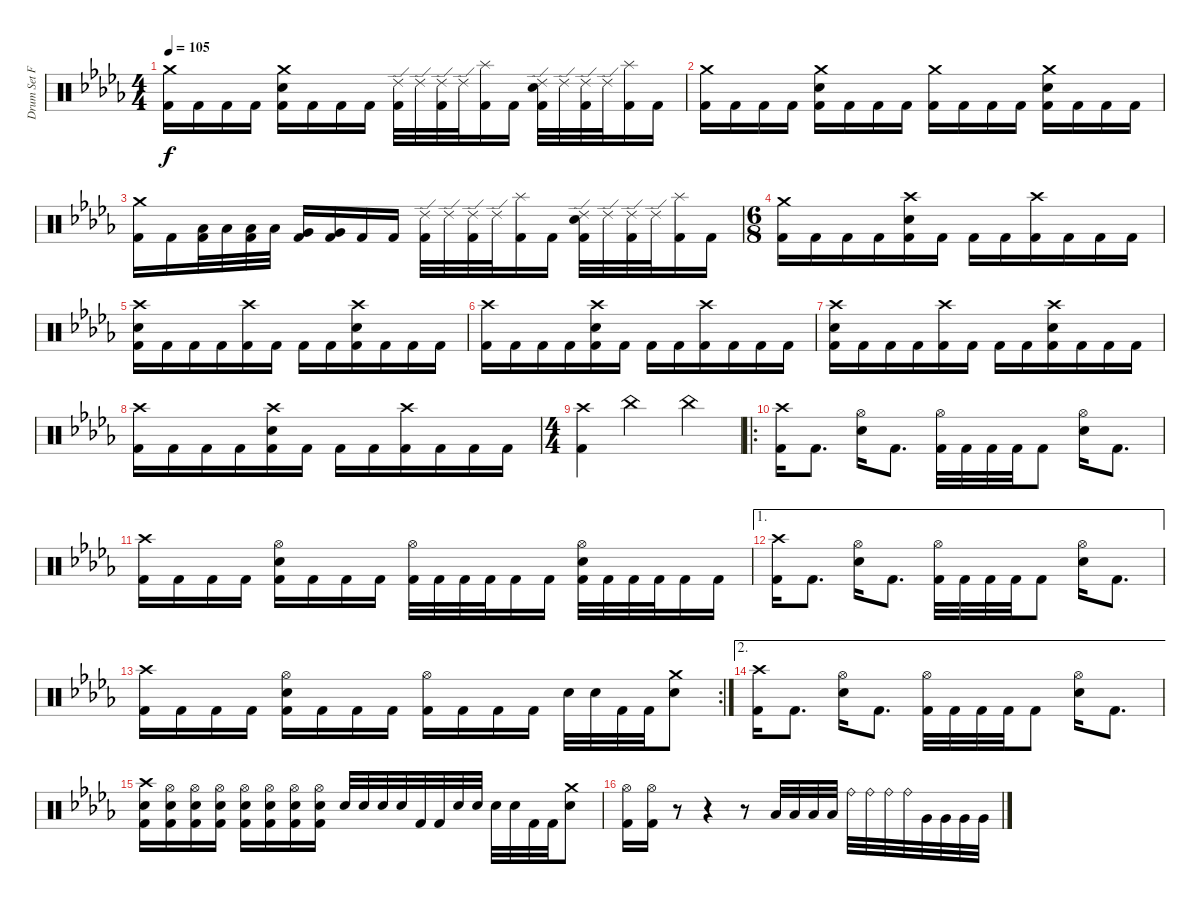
\track ("Drum Set Franz Brachmann" "Drum Set F") {instrument percussion}
\staff {score}
\articulation defaults
\ts (4 4)
\tempo 105
\clef neutral
\ks bbminor
("Crash medium (hit)" "Kick (hit) 2").16{dy f} "Kick (hit) 2".16 "Kick (hit) 2".16 "Kick (hit) 2".16 ("Crash medium (hit)" "Electric Snare (hit)" "Kick (hit) 2").16 "Kick (hit) 2".16 "Kick (hit) 2".16 "Kick (hit) 2".16 ("Ride (edge) 2" "Kick (hit) 2").32 "Ride (edge) 2".32 ("Ride (edge) 2" "Kick (hit) 2").32 "Ride (edge) 2".32 ("Splash (hit)" "Kick (hit) 2").16 "Kick (hit) 2".16 ("Ride (edge) 2" "Electric Snare (hit)" "Kick (hit) 2").32 "Ride (edge) 2".32 ("Ride (edge) 2" "Kick (hit) 2").32 "Ride (edge) 2".32 ("Splash (hit)" "Kick (hit) 2").16 "Kick (hit) 2".16 |
("Crash medium (hit)" "Kick (hit) 2").16 "Kick (hit) 2".16 "Kick (hit) 2".16 "Kick (hit) 2".16 ("Crash medium (hit)" "Electric Snare (hit)" "Kick (hit) 2").16 "Kick (hit) 2".16 "Kick (hit) 2".16 "Kick (hit) 2".16 ("Crash medium (hit)" "Kick (hit) 2").16 "Kick (hit) 2".16 "Kick (hit) 2".16 "Kick (hit) 2".16 ("Crash medium (hit)" "Electric Snare (hit)" "Kick (hit) 2").16 "Kick (hit) 2".16 "Kick (hit) 2".16 "Kick (hit) 2".16 |
("Crash medium (hit)" "Kick (hit) 2").16 "Kick (hit) 2".16 ("Low Tom (hit)" "Kick (hit) 2").32 "Low Tom (hit)".32 ("Low Tom (hit)" "Kick (hit) 2").32 "Low Tom (hit)".32 ("Very Low Tom (hit)" "Kick (hit) 2").16 ("Very Low Tom (hit)" "Kick (hit) 2").16 "Kick (hit) 2".16 "Kick (hit) 2".16 ("Ride (edge) 2" "Kick (hit) 2").32 "Ride (edge) 2".32 ("Ride (edge) 2" "Kick (hit) 2").32 "Ride (edge) 2".32 ("Splash (hit)" "Kick (hit) 2").16 "Kick (hit) 2".16 ("Ride (edge) 2" "Electric Snare (hit)" "Kick (hit) 2").32 "Ride (edge) 2".32 ("Ride (edge) 2" "Kick (hit) 2").32 "Ride (edge) 2".32 ("Splash (hit)" "Kick (hit) 2").16 "Kick (hit) 2".16 |
\ts (6 8)
("Crash medium (hit)" "Kick (hit) 2").16 "Kick (hit) 2".16 "Kick (hit) 2".16 "Kick (hit) 2".16 ("Crash high (hit)" "Electric Snare (hit)" "Kick (hit) 2").16 "Kick (hit) 2".16 "Kick (hit) 2".16 "Kick (hit) 2".16 ("Crash high (hit)" "Kick (hit) 2").16 "Kick (hit) 2".16 "Kick (hit) 2".16 "Kick (hit) 2".16 |
("Crash high (hit)" "Electric Snare (hit)" "Kick (hit) 2").16 "Kick (hit) 2".16 "Kick (hit) 2".16 "Kick (hit) 2".16 ("Crash high (hit)" "Kick (hit) 2").16 "Kick (hit) 2".16 "Kick (hit) 2".16 "Kick (hit) 2".16 ("Crash high (hit)" "Electric Snare (hit)" "Kick (hit) 2").16 "Kick (hit) 2".16 "Kick (hit) 2".16 "Kick (hit) 2".16 |
("Crash high (hit)" "Kick (hit) 2").16 "Kick (hit) 2".16 "Kick (hit) 2".16 "Kick (hit) 2".16 ("Crash high (hit)" "Electric Snare (hit)" "Kick (hit) 2").16 "Kick (hit) 2".16 "Kick (hit) 2".16 "Kick (hit) 2".16 ("Crash high (hit)" "Kick (hit) 2").16 "Kick (hit) 2".16 "Kick (hit) 2".16 "Kick (hit) 2".16 |
("Crash high (hit)" "Electric Snare (hit)" "Kick (hit) 2").16 "Kick (hit) 2".16 "Kick (hit) 2".16 "Kick (hit) 2".16 ("Crash high (hit)" "Kick (hit) 2").16 "Kick (hit) 2".16 "Kick (hit) 2".16 "Kick (hit) 2".16 ("Crash high (hit)" "Electric Snare (hit)" "Kick (hit) 2").16 "Kick (hit) 2".16 "Kick (hit) 2".16 "Kick (hit) 2".16 |
("Crash high (hit)" "Kick (hit) 2").16 "Kick (hit) 2".16 "Kick (hit) 2".16 "Kick (hit) 2".16 ("Crash high (hit)" "Electric Snare (hit)" "Kick (hit) 2").16 "Kick (hit) 2".16 "Kick (hit) 2".16 "Kick (hit) 2".16 ("Crash high (hit)" "Kick (hit) 2").16 "Kick (hit) 2".16 "Kick (hit) 2".16 "Kick (hit) 2".16 |
\ts (4 4)
("Crash high (hit)" "Kick (hit) 2").4 "China (hit)".2 "China (hit)".4 |
\ro
("Crash high (hit)" "Kick (hit) 2").16 "Kick (hit) 2".8{d} ("Hi-Hat (open)" "Electric Snare (hit)").16 "Kick (hit) 2".8{d} ("Hi-Hat (open)" "Kick (hit) 2").32 "Kick (hit) 2".32 "Kick (hit) 2".32 "Kick (hit) 2".32 "Kick (hit) 2".8 ("Hi-Hat (open)" "Electric Snare (hit)").16 "Kick (hit) 2".8{d} |
("Crash high (hit)" "Kick (hit) 2").16 "Kick (hit) 2".16 "Kick (hit) 2".16 "Kick (hit) 2".16 ("Hi-Hat (open)" "Electric Snare (hit)" "Kick (hit) 2").16 "Kick (hit) 2".16 "Kick (hit) 2".16 "Kick (hit) 2".16 ("Hi-Hat (open)" "Kick (hit) 2").32 "Kick (hit) 2".32 "Kick (hit) 2".32 "Kick (hit) 2".32 "Kick (hit) 2".16 "Kick (hit) 2".16 ("Hi-Hat (open)" "Electric Snare (hit)" "Kick (hit) 2").32 "Kick (hit) 2".32 "Kick (hit) 2".32 "Kick (hit) 2".32 "Kick (hit) 2".16 "Kick (hit) 2".16 |
\ae 1
("Crash high (hit)" "Kick (hit) 2").16 "Kick (hit) 2".8{d} ("Hi-Hat (open)" "Electric Snare (hit)").16 "Kick (hit) 2".8{d} ("Hi-Hat (open)" "Kick (hit) 2").32 "Kick (hit) 2".32 "Kick (hit) 2".32 "Kick (hit) 2".32 "Kick (hit) 2".8 ("Hi-Hat (open)" "Electric Snare (hit)").16 "Kick (hit) 2".8{d} |
\rc 2
("Crash high (hit)" "Kick (hit) 2").16 "Kick (hit) 2".16 "Kick (hit) 2".16 "Kick (hit) 2".16 ("Hi-Hat (open)" "Electric Snare (hit)" "Kick (hit) 2").16 "Kick (hit) 2".16 "Kick (hit) 2".16 "Kick (hit) 2".16 ("Hi-Hat (open)" "Kick (hit) 2").16 "Kick (hit) 2".16 "Kick (hit) 2".16 "Kick (hit) 2".16 "Electric Snare (hit)".32 "Electric Snare (hit)".32 "Kick (hit) 2".32 "Kick (hit) 2".32 ("Crash medium (hit)" "Electric Snare (hit)").8 |
\ae 2
("Crash high (hit)" "Kick (hit) 2").16 "Kick (hit) 2".8{d} ("Hi-Hat (open)" "Electric Snare (hit)").16 "Kick (hit) 2".8{d} ("Hi-Hat (open)" "Kick (hit) 2").32 "Kick (hit) 2".32 "Kick (hit) 2".32 "Kick (hit) 2".32 "Kick (hit) 2".8 ("Hi-Hat (open)" "Electric Snare (hit)").16 "Kick (hit) 2".8{d} |
("Crash high (hit)" "Electric Snare (hit)" "Kick (hit) 2").16 ("Hi-Hat (open)" "Electric Snare (hit)" "Kick (hit) 2").16 ("Hi-Hat (open)" "Electric Snare (hit)" "Kick (hit) 2").16 ("Hi-Hat (open)" "Electric Snare (hit)" "Kick (hit) 2").16 ("Hi-Hat (open)" "Electric Snare (hit)" "Kick (hit) 2").16 ("Hi-Hat (open)" "Electric Snare (hit)" "Kick (hit) 2").16 ("Hi-Hat (open)" "Electric Snare (hit)" "Kick (hit) 2").16 ("Hi-Hat (open)" "Electric Snare (hit)" "Kick (hit) 2").16 "Electric Snare (hit)".32 "Electric Snare (hit)".32 "Electric Snare (hit)".32 "Electric Snare (hit)".32 "Kick (hit) 2".32 "Kick (hit) 2".32 "Electric Snare (hit)".32 "Electric Snare (hit)".32 "Electric Snare (hit)".32 "Electric Snare (hit)".32 "Kick (hit) 2".32 "Kick (hit) 2".32 ("Crash medium (hit)" "Electric Snare (hit)").8 |
("Hi-Hat (open)" "Kick (hit) 2").16 ("Hi-Hat (open)" "Kick (hit) 2").16 r.8 r.4 r.8 "Low Tom (hit)".32 "Low Tom (hit)".32 "Low Tom (hit)".32 "Low Tom (hit)".32 "Ride (bell)".32 "Ride (bell)".32 "Ride (bell)".32 "Ride (bell)".32 "Very Low Tom (hit)".32 "Very Low Tom (hit)".32 "Very Low Tom (hit)".32 "Very Low Tom (hit)".32
